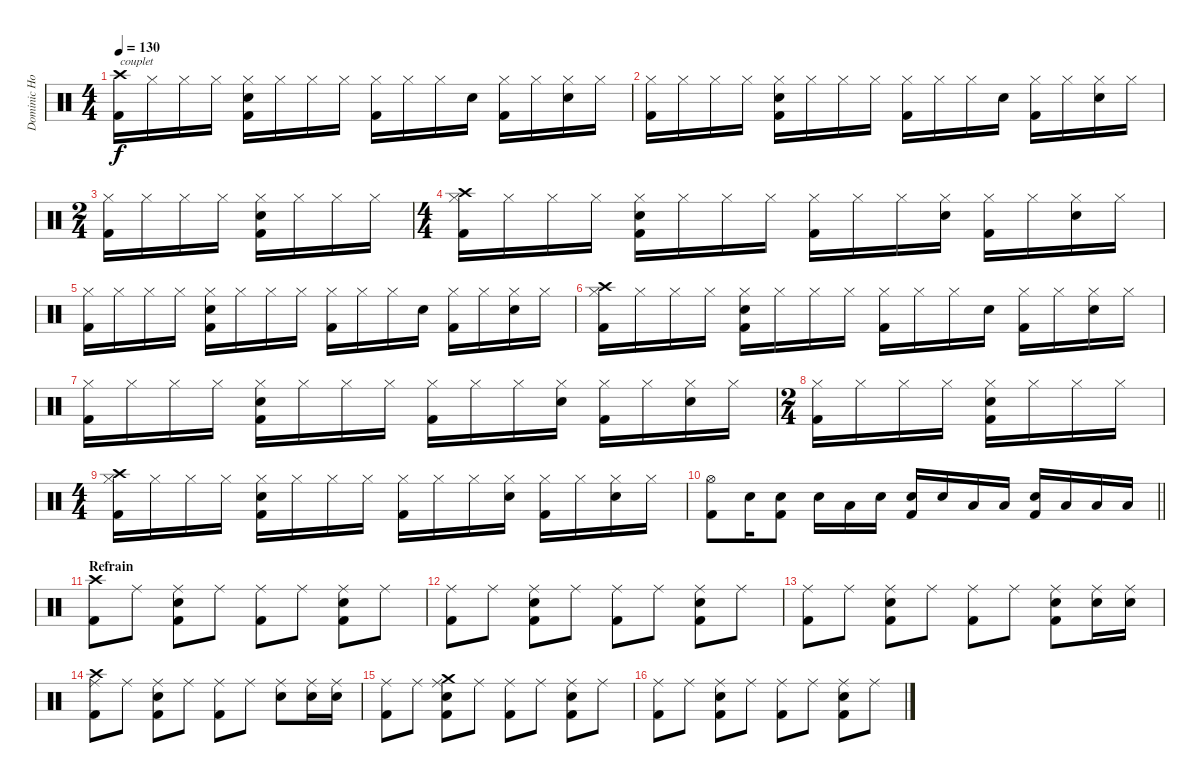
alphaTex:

\track ("Dominic Howard" "Dominic Ho") {instrument percussion}
\staff {score}
\articulation defaults
\ts (4 4)
\tempo 130
\clef neutral
\ks c
("Crash high (hit)" "Kick (hit) 2").16{txt "couplet" dy f} "Hi-Hat (closed)".16 "Hi-Hat (closed)".16 "Hi-Hat (closed)".16 ("Hi-Hat (closed)" "Kick (hit) 2" "Electric Snare (hit)").16 "Hi-Hat (closed)".16 "Hi-Hat (closed)".16 "Hi-Hat (closed)".16 ("Hi-Hat (closed)" "Kick (hit) 2").16 "Hi-Hat (closed)".16 "Hi-Hat (closed)".16 "Electric Snare (hit)".16 ("Hi-Hat (closed)" "Kick (hit) 2").16 "Hi-Hat (closed)".16 ("Hi-Hat (closed)" "Electric Snare (hit)").16 "Hi-Hat (closed)".16 |
("Hi-Hat (closed)" "Kick (hit) 2").16 "Hi-Hat (closed)".16 "Hi-Hat (closed)".16 "Hi-Hat (closed)".16 ("Hi-Hat (closed)" "Kick (hit) 2" "Electric Snare (hit)").16 "Hi-Hat (closed)".16 "Hi-Hat (closed)".16 "Hi-Hat (closed)".16 ("Hi-Hat (closed)" "Kick (hit) 2").16 "Hi-Hat (closed)".16 "Hi-Hat (closed)".16 "Electric Snare (hit)".16 ("Hi-Hat (closed)" "Kick (hit) 2").16 "Hi-Hat (closed)".16 ("Hi-Hat (closed)" "Electric Snare (hit)").16 "Hi-Hat (closed)".16 |
\ts (2 4)
("Hi-Hat (closed)" "Kick (hit) 2").16 "Hi-Hat (closed)".16 "Hi-Hat (closed)".16 "Hi-Hat (closed)".16 ("Hi-Hat (closed)" "Kick (hit) 2" "Electric Snare (hit)").16 "Hi-Hat (closed)".16 "Hi-Hat (closed)".16 "Hi-Hat (closed)".16 |
\ts (4 4)
("Crash high (hit)" "Hi-Hat (closed)" "Kick (hit) 2").16 "Hi-Hat (closed)".16 "Hi-Hat (closed)".16 "Hi-Hat (closed)".16 ("Hi-Hat (closed)" "Electric Snare (hit)" "Kick (hit) 2").16 "Hi-Hat (closed)".16 "Hi-Hat (closed)".16 "Hi-Hat (closed)".16 ("Hi-Hat (closed)" "Kick (hit) 2").16 "Hi-Hat (closed)".16 "Hi-Hat (closed)".16 ("Hi-Hat (closed)" "Electric Snare (hit)").16 ("Hi-Hat (closed)" "Kick (hit) 2").16 "Hi-Hat (closed)".16 ("Electric Snare (hit)" "Hi-Hat (closed)").16 "Hi-Hat (closed)".16 |
("Hi-Hat (closed)" "Kick (hit) 2").16 "Hi-Hat (closed)".16 "Hi-Hat (closed)".16 "Hi-Hat (closed)".16 ("Hi-Hat (closed)" "Electric Snare (hit)" "Kick (hit) 2").16 "Hi-Hat (closed)".16 "Hi-Hat (closed)".16 "Hi-Hat (closed)".16 ("Hi-Hat (closed)" "Kick (hit) 2").16 "Hi-Hat (closed)".16 "Hi-Hat (closed)".16 "Electric Snare (hit)".16 ("Hi-Hat (closed)" "Kick (hit) 2").16 "Hi-Hat (closed)".16 ("Hi-Hat (closed)" "Electric Snare (hit)").16 "Hi-Hat (closed)".16 |
("Crash high (hit)" "Hi-Hat (closed)" "Kick (hit) 2").16 "Hi-Hat (closed)".16 "Hi-Hat (closed)".16 "Hi-Hat (closed)".16 ("Hi-Hat (closed)" "Electric Snare (hit)" "Kick (hit) 2").16 "Hi-Hat (closed)".16 "Hi-Hat (closed)".16 "Hi-Hat (closed)".16 ("Hi-Hat (closed)" "Kick (hit) 2").16 "Hi-Hat (closed)".16 "Hi-Hat (closed)".16 "Electric Snare (hit)".16 ("Hi-Hat (closed)" "Kick (hit) 2").16 "Hi-Hat (closed)".16 ("Hi-Hat (closed)" "Electric Snare (hit)").16 "Hi-Hat (closed)".16 |
("Hi-Hat (closed)" "Kick (hit) 2").16 "Hi-Hat (closed)".16 "Hi-Hat (closed)".16 "Hi-Hat (closed)".16 ("Hi-Hat (closed)" "Kick (hit) 2" "Electric Snare (hit)").16 "Hi-Hat (closed)".16 "Hi-Hat (closed)".16 "Hi-Hat (closed)".16 ("Hi-Hat (closed)" "Kick (hit) 2").16 "Hi-Hat (closed)".16 "Hi-Hat (closed)".16 ("Hi-Hat (closed)" "Electric Snare (hit)").16 ("Hi-Hat (closed)" "Kick (hit) 2").16 "Hi-Hat (closed)".16 ("Hi-Hat (closed)" "Electric Snare (hit)").16 "Hi-Hat (closed)".16 |
\ts (2 4)
("Hi-Hat (closed)" "Kick (hit) 2").16 "Hi-Hat (closed)".16 "Hi-Hat (closed)".16 "Hi-Hat (closed)".16 ("Hi-Hat (closed)" "Kick (hit) 2" "Electric Snare (hit)").16 "Hi-Hat (closed)".16 "Hi-Hat (closed)".16 "Hi-Hat (closed)".16 |
\ts (4 4)
("Crash high (hit)" "Hi-Hat (closed)" "Kick (hit) 2").16 "Hi-Hat (closed)".16 "Hi-Hat (closed)".16 "Hi-Hat (closed)".16 ("Hi-Hat (closed)" "Electric Snare (hit)" "Kick (hit) 2").16 "Hi-Hat (closed)".16 "Hi-Hat (closed)".16 "Hi-Hat (closed)".16 ("Hi-Hat (closed)" "Kick (hit) 2").16 "Hi-Hat (closed)".16 "Hi-Hat (closed)".16 ("Hi-Hat (closed)" "Electric Snare (hit)").16 ("Hi-Hat (closed)" "Kick (hit) 2").16 "Hi-Hat (closed)".16 ("Electric Snare (hit)" "Hi-Hat (closed)").16 "Hi-Hat (closed)".16 |
\barLineRight lightlight
("Hi-Hat (open)" "Kick (hit) 2").8 "Electric Snare (hit)".16 ("Kick (hit) 2" "Electric Snare (hit)").8 "Electric Snare (hit)".16 "Low Tom (hit)".16 "Electric Snare (hit)".16 ("Kick (hit) 2" "Electric Snare (hit)").16 "Electric Snare (hit)".16 "Low Tom (hit)".16 "Low Tom (hit)".16 ("Kick (hit) 2" "Electric Snare (hit)").16 "Low Tom (hit)".16 "Low Tom (hit)".16 "Low Floor Tom (hit)".16 |
\section ("" "Refrain")
("Kick (hit) 2" "Crash high (hit)").8 "Ride (middle)".8 ("Ride (middle)" "Kick (hit) 2" "Electric Snare (hit)").8 "Ride (middle)".8 ("Ride (middle)" "Kick (hit) 2").8 "Ride (middle)".8 ("Ride (middle)" "Kick (hit) 2" "Electric Snare (hit)").8 "Ride (middle)".8 |
("Ride (middle)" "Kick (hit) 2").8 "Ride (middle)".8 ("Ride (middle)" "Kick (hit) 2" "Electric Snare (hit)").8 "Ride (middle)".8 ("Ride (middle)" "Kick (hit) 2").8 "Ride (middle)".8 ("Ride (middle)" "Kick (hit) 2" "Electric Snare (hit)").8 "Ride (middle)".8 |
("Ride (middle)" "Kick (hit) 2").8 "Ride (middle)".8 ("Ride (middle)" "Kick (hit) 2" "Electric Snare (hit)").8 "Ride (middle)".8 ("Ride (middle)" "Kick (hit) 2").8 "Ride (middle)".8 ("Ride (middle)" "Kick (hit) 2" "Electric Snare (hit)").8 ("Ride (middle)" "Electric Snare (hit)").16 ("Ride (middle)" "Electric Snare (hit)").16 |
("Ride (middle)" "Kick (hit) 2" "Crash high (hit)").8 "Ride (middle)".8 ("Ride (middle)" "Kick (hit) 2" "Electric Snare (hit)").8 "Ride (middle)".8 ("Ride (middle)" "Kick (hit) 2").8 "Ride (middle)".8 ("Ride (middle)" "Electric Snare (hit)").8 ("Ride (middle)" "Electric Snare (hit)").16 ("Ride (middle)" "Electric Snare (hit)").16 |
("Ride (middle)" "Kick (hit) 2").8 "Ride (middle)".8 ("Crash medium (hit)" "Ride (middle)" "Kick (hit) 2" "Electric Snare (hit)").8 "Ride (middle)".8 ("Ride (middle)" "Kick (hit) 2").8 "Ride (middle)".8 ("Ride (middle)" "Kick (hit) 2" "Electric Snare (hit)").8 "Ride (middle)".8 |
("Ride (middle)" "Kick (hit) 2").8 "Ride (middle)".8 ("Ride (middle)" "Kick (hit) 2" "Electric Snare (hit)").8 "Ride (middle)".8 ("Ride (middle)" "Kick (hit) 2").8 "Ride (middle)".8 ("Ride (middle)" "Kick (hit) 2" "Electric Snare (hit)").8 "Ride (middle)".8
